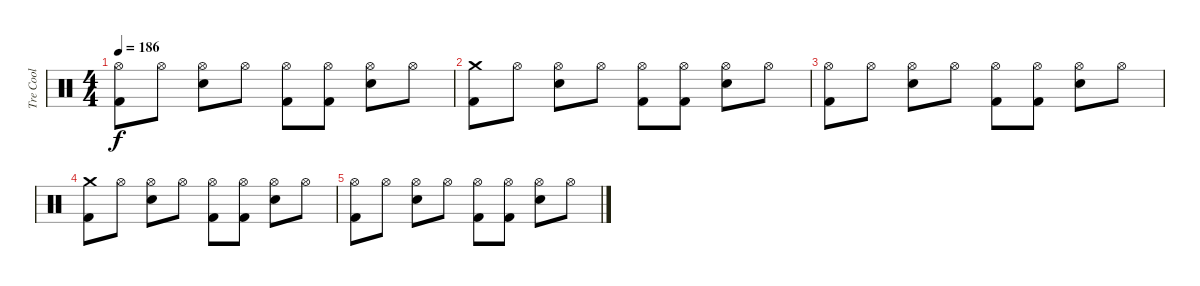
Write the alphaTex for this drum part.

\track ("Tre Cool" "Tre Cool") {instrument percussion}
\staff {score}
\articulation defaults
\ts (4 4)
\tempo 186
\clef neutral
\ks c
("Hi-Hat (open)" "Kick (hit) 2").8{dy f} "Hi-Hat (open)".8 ("Hi-Hat (open)" "Snare (hit) 2").8 "Hi-Hat (open)".8 ("Hi-Hat (open)" "Kick (hit) 2").8 ("Hi-Hat (open)" "Kick (hit) 2").8 ("Hi-Hat (open)" "Snare (hit) 2").8 "Hi-Hat (open)".8 |
("Crash medium (hit)" "Kick (hit) 2").8 "Hi-Hat (open)".8 ("Hi-Hat (open)" "Snare (hit) 2").8 "Hi-Hat (open)".8 ("Hi-Hat (open)" "Kick (hit) 2").8 ("Hi-Hat (open)" "Kick (hit) 2").8 ("Hi-Hat (open)" "Snare (hit) 2").8 "Hi-Hat (open)".8 |
("Hi-Hat (open)" "Kick (hit) 2").8 "Hi-Hat (open)".8 ("Hi-Hat (open)" "Snare (hit) 2").8 "Hi-Hat (open)".8 ("Hi-Hat (open)" "Kick (hit) 2").8 ("Hi-Hat (open)" "Kick (hit) 2").8 ("Hi-Hat (open)" "Snare (hit) 2").8 "Hi-Hat (open)".8 |
("Crash medium (hit)" "Kick (hit) 2").8 "Hi-Hat (open)".8 ("Hi-Hat (open)" "Snare (hit) 2").8 "Hi-Hat (open)".8 ("Hi-Hat (open)" "Kick (hit) 2").8 ("Hi-Hat (open)" "Kick (hit) 2").8 ("Hi-Hat (open)" "Snare (hit) 2").8 "Hi-Hat (open)".8 |
("Hi-Hat (open)" "Kick (hit) 2").8 "Hi-Hat (open)".8 ("Hi-Hat (open)" "Snare (hit) 2").8 "Hi-Hat (open)".8 ("Hi-Hat (open)" "Kick (hit) 2").8 ("Hi-Hat (open)" "Kick (hit) 2").8 ("Hi-Hat (open)" "Snare (hit) 2").8 "Hi-Hat (open)".8
